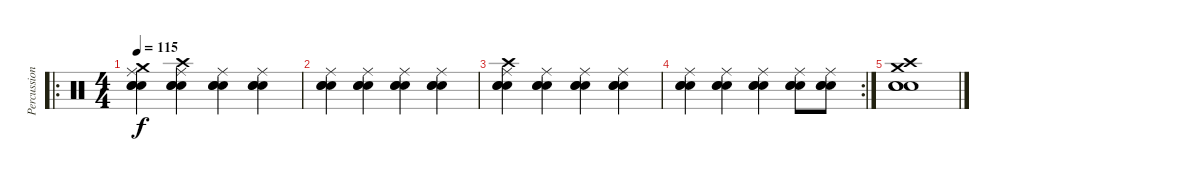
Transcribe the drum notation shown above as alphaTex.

\track ("Percussion" "Percussion") {instrument percussion}
\staff {score}
\articulation defaults
\ro
\ts (4 4)
\tempo 115
\clef neutral
\ks c
("Electric Snare (hit)" "Electric Snare (hit)" "Electric Snare (hit)" "Crash medium (hit)" "Ride (middle)").4{dy f} ("Electric Snare (hit)" "Electric Snare (hit)" "Electric Snare (hit)" "Crash high (hit)" "Ride (middle)").4 ("Electric Snare (hit)" "Electric Snare (hit)" "Electric Snare (hit)" "Ride (middle)").4 ("Electric Snare (hit)" "Electric Snare (hit)" "Electric Snare (hit)" "Ride (middle)").4 |
("Electric Snare (hit)" "Electric Snare (hit)" "Electric Snare (hit)" "Ride (middle)").4 ("Electric Snare (hit)" "Electric Snare (hit)" "Electric Snare (hit)" "Ride (middle)").4 ("Electric Snare (hit)" "Electric Snare (hit)" "Electric Snare (hit)" "Ride (middle)").4 ("Electric Snare (hit)" "Electric Snare (hit)" "Electric Snare (hit)" "Ride (middle)").4 |
("Electric Snare (hit)" "Electric Snare (hit)" "Electric Snare (hit)" "Crash high (hit)" "Ride (middle)").4 ("Electric Snare (hit)" "Electric Snare (hit)" "Electric Snare (hit)" "Ride (middle)").4 ("Electric Snare (hit)" "Electric Snare (hit)" "Electric Snare (hit)" "Ride (middle)").4 ("Electric Snare (hit)" "Electric Snare (hit)" "Electric Snare (hit)" "Ride (middle)").4 |
\rc 2
("Electric Snare (hit)" "Electric Snare (hit)" "Electric Snare (hit)" "Ride (middle)").4 ("Electric Snare (hit)" "Electric Snare (hit)" "Electric Snare (hit)" "Ride (middle)").4 ("Electric Snare (hit)" "Electric Snare (hit)" "Electric Snare (hit)" "Ride (middle)").4 ("Electric Snare (hit)" "Electric Snare (hit)" "Electric Snare (hit)" "Ride (middle)").8 ("Electric Snare (hit)" "Electric Snare (hit)" "Electric Snare (hit)" "Ride (middle)").8 |
("Electric Snare (hit)" "Electric Snare (hit)" "Electric Snare (hit)" "Crash high (hit)" "Crash medium (hit)").1
